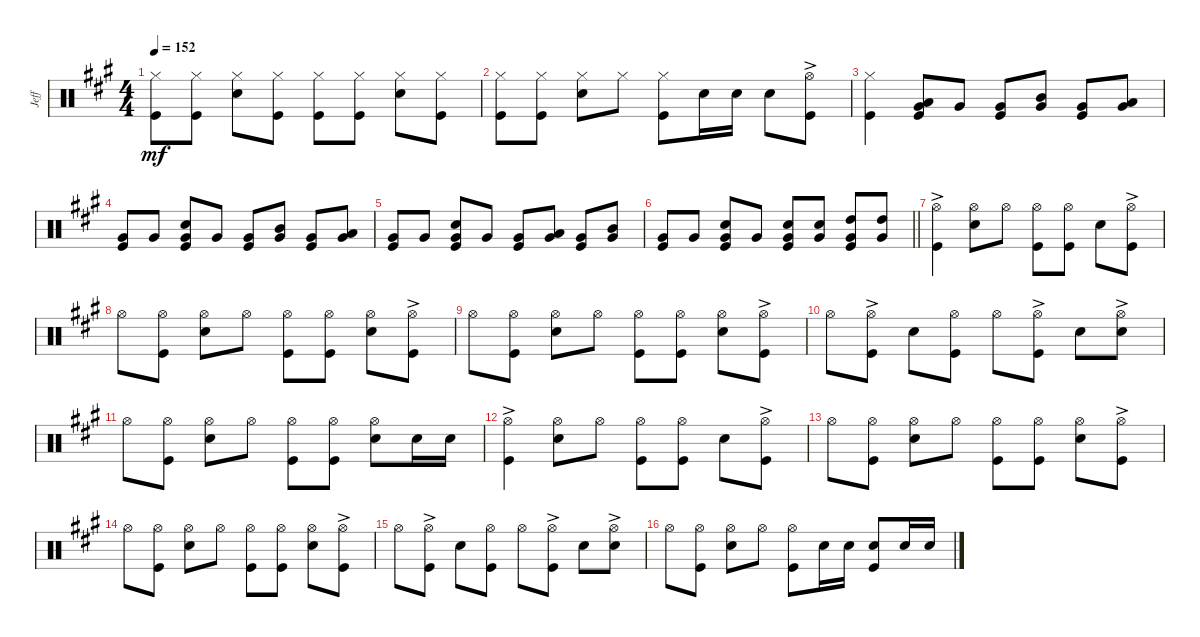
\track ("Jeff" "Jeff") {instrument percussion}
\staff {score}
\articulation defaults
\ts (4 4)
\tempo 152
\clef neutral
\ks a
("Hi-Hat (closed)" "Kick (hit)").8{dy mf} ("Hi-Hat (closed)" "Kick (hit)").8 ("Hi-Hat (closed)" "Snare (hit) 2").8 ("Hi-Hat (closed)" "Kick (hit)").8 ("Hi-Hat (closed)" "Kick (hit)").8 ("Hi-Hat (closed)" "Kick (hit)").8 ("Hi-Hat (closed)" "Snare (hit) 2").8 ("Hi-Hat (closed)" "Kick (hit)").8 |
("Hi-Hat (closed)" "Kick (hit)").8 ("Hi-Hat (closed)" "Kick (hit)").8 ("Hi-Hat (closed)" "Snare (hit) 2").8 "Hi-Hat (closed)".8 ("Hi-Hat (closed)" "Kick (hit)").8 "Snare (hit) 2".16 "Snare (hit) 2".16 "Snare (hit) 2".8 ("Hi-Hat (open)"{ac} "Kick (hit)").8 |
("Hi-Hat (closed)" "Kick (hit)").4 ("Very Low Tom (hit)" "Kick (hit)" "Low Tom (hit)").8 "Very Low Tom (hit)".8 ("Very Low Tom (hit)" "Kick (hit)").8 ("Mid Tom (hit)" "Very Low Tom (hit)").8 ("Very Low Tom (hit)" "Kick (hit)").8 ("Low Tom (hit)" "Very Low Tom (hit)").8 |
("Very Low Tom (hit)" "Kick (hit)").8 "Very Low Tom (hit)".8 ("Very Low Tom (hit)" "Kick (hit)" "Snare (hit) 2").8 "Very Low Tom (hit)".8 ("Very Low Tom (hit)" "Kick (hit)").8 ("Very Low Tom (hit)" "Mid Tom (hit)").8 ("Very Low Tom (hit)" "Kick (hit)").8 ("Very Low Tom (hit)" "Low Tom (hit)").8 |
("Very Low Tom (hit)" "Kick (hit)").8 "Very Low Tom (hit)".8 ("Snare (hit) 2" "Very Low Tom (hit)" "Kick (hit)").8 "Very Low Tom (hit)".8 ("Very Low Tom (hit)" "Kick (hit)").8 ("Very Low Tom (hit)" "Low Tom (hit)").8 ("Very Low Tom (hit)" "Kick (hit)").8 ("Very Low Tom (hit)" "Mid Tom (hit)").8 |
\barLineRight lightlight
("Very Low Tom (hit)" "Kick (hit)").8 "Very Low Tom (hit)".8 ("Snare (hit) 2" "Very Low Tom (hit)" "Kick (hit)").8 "Very Low Tom (hit)".8 ("Snare (hit) 2" "Very Low Tom (hit)" "Kick (hit)").8 ("Very Low Tom (hit)" "Snare (hit) 2").8 ("High Tom (hit)" "Very Low Tom (hit)" "Kick (hit)").8 ("High Tom (hit)" "Very Low Tom (hit)").8 |
("Hi-Hat (open)"{ac} "Kick (hit)").4 ("Hi-Hat (open)" "Snare (hit) 2").8 "Hi-Hat (open)".8 ("Hi-Hat (open)" "Kick (hit)").8 ("Hi-Hat (open)" "Kick (hit)").8 "Snare (hit) 2".8 ("Hi-Hat (open)" "Kick (hit)"{ac}).8 |
"Hi-Hat (open)".8 ("Hi-Hat (open)" "Kick (hit)").8 ("Hi-Hat (open)" "Snare (hit) 2").8 "Hi-Hat (open)".8 ("Hi-Hat (open)" "Kick (hit)").8 ("Hi-Hat (open)" "Kick (hit)").8 ("Hi-Hat (open)" "Snare (hit) 2").8 ("Hi-Hat (open)"{ac} "Kick (hit)").8 |
"Hi-Hat (open)".8 ("Hi-Hat (open)" "Kick (hit)").8 ("Hi-Hat (open)" "Snare (hit) 2").8 "Hi-Hat (open)".8 ("Hi-Hat (open)" "Kick (hit)").8 ("Hi-Hat (open)" "Kick (hit)").8 ("Hi-Hat (open)" "Snare (hit) 2").8 ("Hi-Hat (open)"{ac} "Kick (hit)").8 |
"Hi-Hat (open)".8 ("Hi-Hat (open)" "Kick (hit)"{ac}).8 "Snare (hit) 2".8 ("Hi-Hat (open)" "Kick (hit)").8 "Hi-Hat (open)".8 ("Hi-Hat (open)"{ac} "Kick (hit)").8 "Snare (hit) 2".8 ("Hi-Hat (open)"{ac} "Snare (hit) 2").8 |
"Hi-Hat (open)".8 ("Hi-Hat (open)" "Kick (hit)").8 ("Hi-Hat (open)" "Snare (hit) 2").8 "Hi-Hat (open)".8 ("Hi-Hat (open)" "Kick (hit)").8 ("Hi-Hat (open)" "Kick (hit)").8 ("Hi-Hat (open)" "Snare (hit) 2").8 "Snare (hit) 2".16 "Snare (hit) 2".16 |
("Hi-Hat (open)"{ac} "Kick (hit)").4 ("Hi-Hat (open)" "Snare (hit) 2").8 "Hi-Hat (open)".8 ("Hi-Hat (open)" "Kick (hit)").8 ("Hi-Hat (open)" "Kick (hit)").8 "Snare (hit) 2".8 ("Hi-Hat (open)" "Kick (hit)"{ac}).8 |
"Hi-Hat (open)".8 ("Hi-Hat (open)" "Kick (hit)").8 ("Hi-Hat (open)" "Snare (hit) 2").8 "Hi-Hat (open)".8 ("Hi-Hat (open)" "Kick (hit)").8 ("Hi-Hat (open)" "Kick (hit)").8 ("Hi-Hat (open)" "Snare (hit) 2").8 ("Hi-Hat (open)"{ac} "Kick (hit)").8 |
"Hi-Hat (open)".8 ("Hi-Hat (open)" "Kick (hit)").8 ("Hi-Hat (open)" "Snare (hit) 2").8 "Hi-Hat (open)".8 ("Hi-Hat (open)" "Kick (hit)").8 ("Hi-Hat (open)" "Kick (hit)").8 ("Hi-Hat (open)" "Snare (hit) 2").8 ("Hi-Hat (open)"{ac} "Kick (hit)").8 |
"Hi-Hat (open)".8 ("Hi-Hat (open)" "Kick (hit)"{ac}).8 "Snare (hit) 2".8 ("Hi-Hat (open)" "Kick (hit)").8 "Hi-Hat (open)".8 ("Hi-Hat (open)"{ac} "Kick (hit)").8 "Snare (hit) 2".8 ("Hi-Hat (open)"{ac} "Snare (hit) 2").8 |
"Hi-Hat (open)".8 ("Hi-Hat (open)" "Kick (hit)").8 ("Hi-Hat (open)" "Snare (hit) 2").8 "Hi-Hat (open)".8 ("Hi-Hat (open)" "Kick (hit)").8 "Snare (hit) 2".16 "Snare (hit) 2".16 ("Snare (hit) 2" "Kick (hit)").8 "Snare (hit) 2".16 "Snare (hit) 2".16
